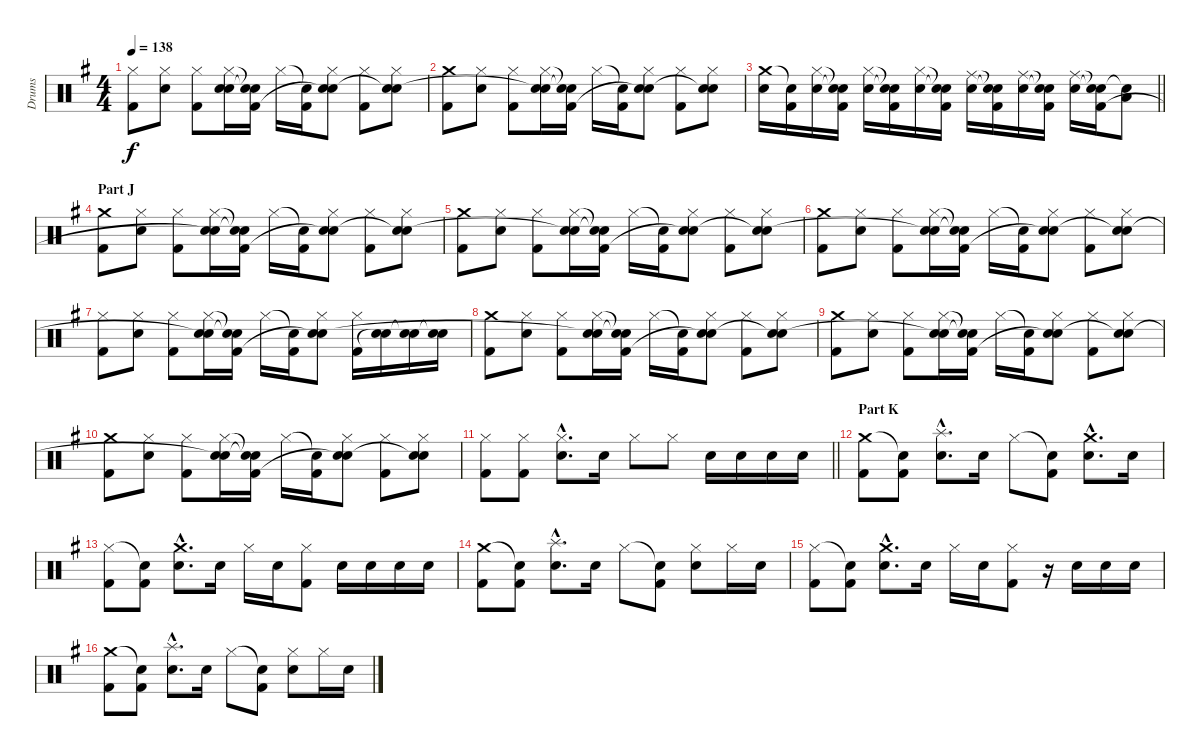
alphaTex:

\track ("Drums" "Drums") {instrument percussion}
\staff {score}
\articulation defaults
\ts (4 4)
\tempo 138
\clef neutral
\ks g
("Hi-Hat (closed)" "Kick (hit) 2").8{dy f} ("Hi-Hat (closed)" "Electric Snare (hit)").8 ("Hi-Hat (closed)" "Kick (hit) 2").8 ("Hi-Hat (closed)" "Electric Snare (hit)" "Snare (hit)"{t}).16 ("Snare (hit)"{t} "Snare (hit)"{t} "Kick (hit) 2").16 "Hi-Hat (closed)".16 ("Snare (hit)"{t} "Kick (hit) 2").16 ("Hi-Hat (closed)" "Electric Snare (hit)" "Snare (hit)"{t}).8 ("Hi-Hat (closed)" "Kick (hit) 2").8 ("Hi-Hat (closed)" "Electric Snare (hit)" "Snare (hit)"{t}).8 |
("Crash medium (hit)" "Kick (hit) 2").8 ("Hi-Hat (closed)" "Electric Snare (hit)").8 ("Hi-Hat (closed)" "Kick (hit) 2").8 ("Hi-Hat (closed)" "Electric Snare (hit)" "Snare (hit)"{t}).16 ("Snare (hit)"{t} "Snare (hit)"{t} "Kick (hit) 2").16 "Hi-Hat (closed)".16 ("Snare (hit)"{t} "Kick (hit) 2").16 ("Hi-Hat (closed)" "Electric Snare (hit)" "Snare (hit)"{t}).8 ("Hi-Hat (closed)" "Kick (hit) 2").8 ("Hi-Hat (closed)" "Electric Snare (hit)" "Snare (hit)"{t}).8 |
\barLineRight lightlight
("Crash medium (hit)" "Electric Snare (hit)").16 ("Snare (hit)"{t} "Kick (hit) 2").16 ("Hi-Hat (closed)" "Electric Snare (hit)").16 ("Snare (hit)"{t} "Snare (hit)"{t} "Kick (hit) 2").16 ("Hi-Hat (closed)" "Electric Snare (hit)").16 ("Snare (hit)"{t} "Snare (hit)"{t} "Kick (hit) 2").16 ("Hi-Hat (closed)" "Electric Snare (hit)").16 ("Snare (hit)"{t} "Snare (hit)"{t} "Kick (hit) 2").16 ("Ride (middle)" "Electric Snare (hit)").16 ("Snare (hit)"{t} "Snare (hit)"{t} "Kick (hit) 2").16 ("Ride (middle)" "Electric Snare (hit)").16 ("Snare (hit)"{t} "Snare (hit)"{t} "Kick (hit) 2").16 ("Ride (middle)" "Electric Snare (hit)").16 ("Snare (hit)"{t} "Snare (hit)"{t} "Kick (hit) 2").16 ("Low Floor Tom (hit)" "Snare (hit)"{t}).8 |
\section ("" "Part J")
("Crash medium (hit)" "Kick (hit) 2").8 ("Hi-Hat (closed)" "Electric Snare (hit)").8 ("Hi-Hat (closed)" "Kick (hit) 2").8 ("Hi-Hat (closed)" "Electric Snare (hit)" "Snare (hit)"{t}).16 ("Snare (hit)"{t} "Snare (hit)"{t} "Kick (hit) 2").16 "Hi-Hat (closed)".16 ("Snare (hit)"{t} "Kick (hit) 2").16 ("Hi-Hat (closed)" "Electric Snare (hit)" "Snare (hit)"{t}).8 ("Hi-Hat (closed)" "Kick (hit) 2").8 ("Hi-Hat (closed)" "Electric Snare (hit)" "Snare (hit)"{t}).8 |
("Crash medium (hit)" "Kick (hit) 2").8 ("Hi-Hat (closed)" "Electric Snare (hit)").8 ("Hi-Hat (closed)" "Kick (hit) 2").8 ("Hi-Hat (closed)" "Electric Snare (hit)" "Snare (hit)"{t}).16 ("Snare (hit)"{t} "Snare (hit)"{t} "Kick (hit) 2").16 "Hi-Hat (closed)".16 ("Snare (hit)"{t} "Kick (hit) 2").16 ("Hi-Hat (closed)" "Electric Snare (hit)" "Snare (hit)"{t}).8 ("Hi-Hat (closed)" "Kick (hit) 2").8 ("Hi-Hat (closed)" "Electric Snare (hit)" "Snare (hit)"{t}).8 |
("Crash medium (hit)" "Kick (hit) 2").8 ("Hi-Hat (closed)" "Electric Snare (hit)").8 ("Hi-Hat (closed)" "Kick (hit) 2").8 ("Hi-Hat (closed)" "Electric Snare (hit)" "Snare (hit)"{t}).16 ("Snare (hit)"{t} "Snare (hit)"{t} "Kick (hit) 2").16 "Hi-Hat (closed)".16 ("Snare (hit)"{t} "Kick (hit) 2").16 ("Hi-Hat (closed)" "Electric Snare (hit)" "Snare (hit)"{t}).8 ("Hi-Hat (closed)" "Kick (hit) 2").8 ("Hi-Hat (closed)" "Electric Snare (hit)" "Snare (hit)"{t}).8 |
("Hi-Hat (closed)" "Kick (hit) 2").8 ("Hi-Hat (closed)" "Electric Snare (hit)").8 ("Hi-Hat (closed)" "Kick (hit) 2").8 ("Hi-Hat (closed)" "Electric Snare (hit)" "Snare (hit)"{t}).16 ("Snare (hit)"{t} "Snare (hit)"{t} "Kick (hit) 2").16 "Hi-Hat (closed)".16 ("Snare (hit)"{t} "Kick (hit) 2").16 ("Hi-Hat (closed)" "Electric Snare (hit)" "Snare (hit)"{t}).8 ("Hi-Hat (closed)" "Kick (hit) 2").16 ("Electric Snare (hit)" "Snare (hit)"{t}).16 ("Electric Snare (hit)" "Snare (hit)"{t}).16 ("Electric Snare (hit)" "Snare (hit)"{t}).16 |
("Crash medium (hit)" "Kick (hit) 2").8 ("Hi-Hat (closed)" "Electric Snare (hit)").8 ("Hi-Hat (closed)" "Kick (hit) 2").8 ("Hi-Hat (closed)" "Electric Snare (hit)" "Snare (hit)"{t}).16 ("Snare (hit)"{t} "Snare (hit)"{t} "Kick (hit) 2").16 "Hi-Hat (closed)".16 ("Snare (hit)"{t} "Kick (hit) 2").16 ("Hi-Hat (closed)" "Electric Snare (hit)" "Snare (hit)"{t}).8 ("Hi-Hat (closed)" "Kick (hit) 2").8 ("Hi-Hat (closed)" "Electric Snare (hit)" "Snare (hit)"{t}).8 |
("Crash medium (hit)" "Kick (hit) 2").8 ("Hi-Hat (closed)" "Electric Snare (hit)").8 ("Hi-Hat (closed)" "Kick (hit) 2").8 ("Hi-Hat (closed)" "Electric Snare (hit)" "Snare (hit)"{t}).16 ("Snare (hit)"{t} "Snare (hit)"{t} "Kick (hit) 2").16 "Hi-Hat (closed)".16 ("Snare (hit)"{t} "Kick (hit) 2").16 ("Hi-Hat (closed)" "Electric Snare (hit)" "Snare (hit)"{t}).8 ("Hi-Hat (closed)" "Kick (hit) 2").8 ("Hi-Hat (closed)" "Electric Snare (hit)" "Snare (hit)"{t}).8 |
("Crash medium (hit)" "Kick (hit) 2").8 ("Hi-Hat (closed)" "Electric Snare (hit)").8 ("Hi-Hat (closed)" "Kick (hit) 2").8 ("Hi-Hat (closed)" "Electric Snare (hit)" "Snare (hit)"{t}).16 ("Snare (hit)"{t} "Snare (hit)"{t} "Kick (hit) 2").16 "Hi-Hat (closed)".16 ("Snare (hit)"{t} "Kick (hit) 2").16 ("Hi-Hat (closed)" "Electric Snare (hit)" "Snare (hit)"{t}).8 ("Hi-Hat (closed)" "Kick (hit) 2").8 ("Hi-Hat (closed)" "Electric Snare (hit)" "Snare (hit)"{t}).8 |
\barLineRight lightlight
("Hi-Hat (closed)" "Kick (hit) 2").8 ("Hi-Hat (closed)" "Kick (hit) 2").8 ("Hi-Hat (closed)"{hac} "Electric Snare (hit)"{hac}).8{d} "Electric Snare (hit)".16 "Hi-Hat (closed)".8 "Hi-Hat (closed)".8 "Electric Snare (hit)".16 "Electric Snare (hit)".16 "Electric Snare (hit)".16 "Electric Snare (hit)".16 |
\section ("" "Part K")
("Crash medium (hit)" "Kick (hit) 2").8 ("Snare (hit)"{t} "Kick (hit) 2").8 ("Splash (hit)"{hac} "Electric Snare (hit)"{hac}).8{d} "Electric Snare (hit)".16 "Hi-Hat (closed)".8 ("Snare (hit)"{t} "Kick (hit) 2").8 ("Crash medium (hit)"{hac} "Electric Snare (hit)"{hac}).8{d} "Electric Snare (hit)".16 |
("Hi-Hat (closed)" "Kick (hit) 2").8 ("Snare (hit)"{t} "Kick (hit) 2").8 ("Crash medium (hit)"{hac} "Electric Snare (hit)"{hac}).8{d} "Electric Snare (hit)".16 "Hi-Hat (closed)".16 "Electric Snare (hit)".16 ("Hi-Hat (closed)" "Kick (hit) 2").8 "Electric Snare (hit)".16 "Electric Snare (hit)".16 "Electric Snare (hit)".16 "Electric Snare (hit)".16 |
("Crash medium (hit)" "Kick (hit) 2").8 ("Snare (hit)"{t} "Kick (hit) 2").8 ("Splash (hit)"{hac} "Electric Snare (hit)"{hac}).8{d} "Electric Snare (hit)".16 "Hi-Hat (closed)".8 ("Snare (hit)"{t} "Kick (hit) 2").8 ("Hi-Hat (closed)" "Electric Snare (hit)").8 "Hi-Hat (closed)".16 "Electric Snare (hit)".16 |
("Hi-Hat (closed)" "Kick (hit) 2").8 ("Snare (hit)"{t} "Kick (hit) 2").8 ("Crash medium (hit)"{hac} "Electric Snare (hit)"{hac}).8{d} "Electric Snare (hit)".16 "Hi-Hat (closed)".16 "Electric Snare (hit)".16 ("Hi-Hat (closed)" "Kick (hit) 2").8 r.16 "Electric Snare (hit)".16 "Electric Snare (hit)".16 "Electric Snare (hit)".16 |
("Crash medium (hit)" "Kick (hit) 2").8 ("Snare (hit)"{t} "Kick (hit) 2").8 ("Splash (hit)"{hac} "Electric Snare (hit)"{hac}).8{d} "Electric Snare (hit)".16 "Hi-Hat (closed)".8 ("Snare (hit)"{t} "Kick (hit) 2").8 ("Hi-Hat (closed)" "Electric Snare (hit)").8 "Hi-Hat (closed)".16 "Electric Snare (hit)".16
